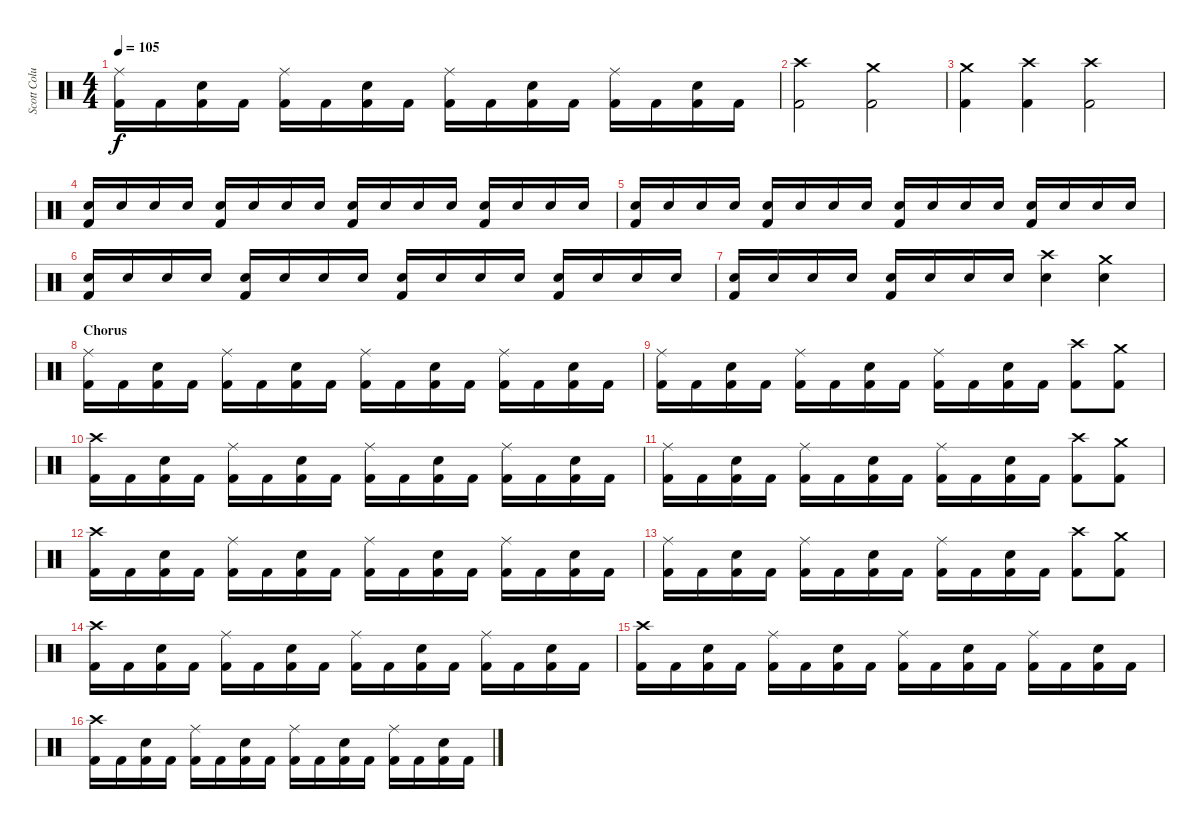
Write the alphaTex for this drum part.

\track ("Scott Columbus" "Scott Colu") {instrument percussion}
\staff {score}
\articulation defaults
\ts (4 4)
\tempo 105
\clef neutral
\ks c
("Ride (middle)" "Kick (hit) 2").16{dy f} "Kick (hit) 2".16 ("Snare (hit) 2" "Kick (hit) 2").16 "Kick (hit) 2".16 ("Ride (middle)" "Kick (hit) 2").16 "Kick (hit) 2".16 ("Snare (hit) 2" "Kick (hit) 2").16 "Kick (hit) 2".16 ("Ride (middle)" "Kick (hit) 2").16 "Kick (hit) 2".16 ("Snare (hit) 2" "Kick (hit) 2").16 "Kick (hit) 2".16 ("Ride (middle)" "Kick (hit) 2").16 "Kick (hit) 2".16 ("Snare (hit) 2" "Kick (hit) 2").16 "Kick (hit) 2".16 |
("Crash high (hit)" "Kick (hit) 2").2 ("Crash medium (hit)" "Kick (hit) 2").2 |
("Crash medium (hit)" "Kick (hit) 2").4 ("Crash high (hit)" "Kick (hit) 2").4 ("Crash high (hit)" "Kick (hit) 2").2 |
("Kick (hit) 2" "Snare (hit) 2").16 "Snare (hit) 2".16 "Snare (hit) 2".16 "Snare (hit) 2".16 ("Kick (hit) 2" "Snare (hit) 2").16 "Snare (hit) 2".16 "Snare (hit) 2".16 "Snare (hit) 2".16 ("Kick (hit) 2" "Snare (hit) 2").16 "Snare (hit) 2".16 "Snare (hit) 2".16 "Snare (hit) 2".16 ("Kick (hit) 2" "Snare (hit) 2").16 "Snare (hit) 2".16 "Snare (hit) 2".16 "Snare (hit) 2".16 |
("Kick (hit) 2" "Snare (hit) 2").16 "Snare (hit) 2".16 "Snare (hit) 2".16 "Snare (hit) 2".16 ("Kick (hit) 2" "Snare (hit) 2").16 "Snare (hit) 2".16 "Snare (hit) 2".16 "Snare (hit) 2".16 ("Kick (hit) 2" "Snare (hit) 2").16 "Snare (hit) 2".16 "Snare (hit) 2".16 "Snare (hit) 2".16 ("Kick (hit) 2" "Snare (hit) 2").16 "Snare (hit) 2".16 "Snare (hit) 2".16 "Snare (hit) 2".16 |
("Kick (hit) 2" "Snare (hit) 2").16 "Snare (hit) 2".16 "Snare (hit) 2".16 "Snare (hit) 2".16 ("Kick (hit) 2" "Snare (hit) 2").16 "Snare (hit) 2".16 "Snare (hit) 2".16 "Snare (hit) 2".16 ("Kick (hit) 2" "Snare (hit) 2").16 "Snare (hit) 2".16 "Snare (hit) 2".16 "Snare (hit) 2".16 ("Kick (hit) 2" "Snare (hit) 2").16 "Snare (hit) 2".16 "Snare (hit) 2".16 "Snare (hit) 2".16 |
("Kick (hit) 2" "Snare (hit) 2").16 "Snare (hit) 2".16 "Snare (hit) 2".16 "Snare (hit) 2".16 ("Kick (hit) 2" "Snare (hit) 2").16 "Snare (hit) 2".16 "Snare (hit) 2".16 "Snare (hit) 2".16 ("Crash high (hit)" "Snare (hit) 2").4 ("Crash medium (hit)" "Snare (hit) 2").4 |
\section ("" "Chorus")
("Ride (middle)" "Kick (hit) 2").16 "Kick (hit) 2".16 ("Snare (hit) 2" "Kick (hit) 2").16 "Kick (hit) 2".16 ("Ride (middle)" "Kick (hit) 2").16 "Kick (hit) 2".16 ("Snare (hit) 2" "Kick (hit) 2").16 "Kick (hit) 2".16 ("Ride (middle)" "Kick (hit) 2").16 "Kick (hit) 2".16 ("Snare (hit) 2" "Kick (hit) 2").16 "Kick (hit) 2".16 ("Ride (middle)" "Kick (hit) 2").16 "Kick (hit) 2".16 ("Snare (hit) 2" "Kick (hit) 2").16 "Kick (hit) 2".16 |
("Ride (middle)" "Kick (hit) 2").16 "Kick (hit) 2".16 ("Snare (hit) 2" "Kick (hit) 2").16 "Kick (hit) 2".16 ("Ride (middle)" "Kick (hit) 2").16 "Kick (hit) 2".16 ("Snare (hit) 2" "Kick (hit) 2").16 "Kick (hit) 2".16 ("Ride (middle)" "Kick (hit) 2").16 "Kick (hit) 2".16 ("Snare (hit) 2" "Kick (hit) 2").16 "Kick (hit) 2".16 ("Crash high (hit)" "Kick (hit) 2").8 ("Crash medium (hit)" "Kick (hit) 2").8 |
("Crash high (hit)" "Kick (hit) 2").16 "Kick (hit) 2".16 ("Snare (hit) 2" "Kick (hit) 2").16 "Kick (hit) 2".16 ("Ride (middle)" "Kick (hit) 2").16 "Kick (hit) 2".16 ("Snare (hit) 2" "Kick (hit) 2").16 "Kick (hit) 2".16 ("Ride (middle)" "Kick (hit) 2").16 "Kick (hit) 2".16 ("Snare (hit) 2" "Kick (hit) 2").16 "Kick (hit) 2".16 ("Ride (middle)" "Kick (hit) 2").16 "Kick (hit) 2".16 ("Snare (hit) 2" "Kick (hit) 2").16 "Kick (hit) 2".16 |
("Ride (middle)" "Kick (hit) 2").16 "Kick (hit) 2".16 ("Snare (hit) 2" "Kick (hit) 2").16 "Kick (hit) 2".16 ("Ride (middle)" "Kick (hit) 2").16 "Kick (hit) 2".16 ("Snare (hit) 2" "Kick (hit) 2").16 "Kick (hit) 2".16 ("Ride (middle)" "Kick (hit) 2").16 "Kick (hit) 2".16 ("Snare (hit) 2" "Kick (hit) 2").16 "Kick (hit) 2".16 ("Crash high (hit)" "Kick (hit) 2").8 ("Crash medium (hit)" "Kick (hit) 2").8 |
("Crash high (hit)" "Kick (hit) 2").16 "Kick (hit) 2".16 ("Snare (hit) 2" "Kick (hit) 2").16 "Kick (hit) 2".16 ("Ride (middle)" "Kick (hit) 2").16 "Kick (hit) 2".16 ("Snare (hit) 2" "Kick (hit) 2").16 "Kick (hit) 2".16 ("Ride (middle)" "Kick (hit) 2").16 "Kick (hit) 2".16 ("Snare (hit) 2" "Kick (hit) 2").16 "Kick (hit) 2".16 ("Ride (middle)" "Kick (hit) 2").16 "Kick (hit) 2".16 ("Snare (hit) 2" "Kick (hit) 2").16 "Kick (hit) 2".16 |
("Ride (middle)" "Kick (hit) 2").16 "Kick (hit) 2".16 ("Snare (hit) 2" "Kick (hit) 2").16 "Kick (hit) 2".16 ("Ride (middle)" "Kick (hit) 2").16 "Kick (hit) 2".16 ("Snare (hit) 2" "Kick (hit) 2").16 "Kick (hit) 2".16 ("Ride (middle)" "Kick (hit) 2").16 "Kick (hit) 2".16 ("Snare (hit) 2" "Kick (hit) 2").16 "Kick (hit) 2".16 ("Crash high (hit)" "Kick (hit) 2").8 ("Crash medium (hit)" "Kick (hit) 2").8 |
("Crash high (hit)" "Kick (hit) 2").16 "Kick (hit) 2".16 ("Snare (hit) 2" "Kick (hit) 2").16 "Kick (hit) 2".16 ("Ride (middle)" "Kick (hit) 2").16 "Kick (hit) 2".16 ("Snare (hit) 2" "Kick (hit) 2").16 "Kick (hit) 2".16 ("Ride (middle)" "Kick (hit) 2").16 "Kick (hit) 2".16 ("Snare (hit) 2" "Kick (hit) 2").16 "Kick (hit) 2".16 ("Ride (middle)" "Kick (hit) 2").16 "Kick (hit) 2".16 ("Snare (hit) 2" "Kick (hit) 2").16 "Kick (hit) 2".16 |
("Crash high (hit)" "Kick (hit) 2").16 "Kick (hit) 2".16 ("Snare (hit) 2" "Kick (hit) 2").16 "Kick (hit) 2".16 ("Ride (middle)" "Kick (hit) 2").16 "Kick (hit) 2".16 ("Snare (hit) 2" "Kick (hit) 2").16 "Kick (hit) 2".16 ("Ride (middle)" "Kick (hit) 2").16 "Kick (hit) 2".16 ("Snare (hit) 2" "Kick (hit) 2").16 "Kick (hit) 2".16 ("Ride (middle)" "Kick (hit) 2").16 "Kick (hit) 2".16 ("Snare (hit) 2" "Kick (hit) 2").16 "Kick (hit) 2".16 |
("Crash high (hit)" "Kick (hit) 2").16 "Kick (hit) 2".16 ("Snare (hit) 2" "Kick (hit) 2").16 "Kick (hit) 2".16 ("Ride (middle)" "Kick (hit) 2").16 "Kick (hit) 2".16 ("Snare (hit) 2" "Kick (hit) 2").16 "Kick (hit) 2".16 ("Ride (middle)" "Kick (hit) 2").16 "Kick (hit) 2".16 ("Snare (hit) 2" "Kick (hit) 2").16 "Kick (hit) 2".16 ("Ride (middle)" "Kick (hit) 2").16 "Kick (hit) 2".16 ("Snare (hit) 2" "Kick (hit) 2").16 "Kick (hit) 2".16
